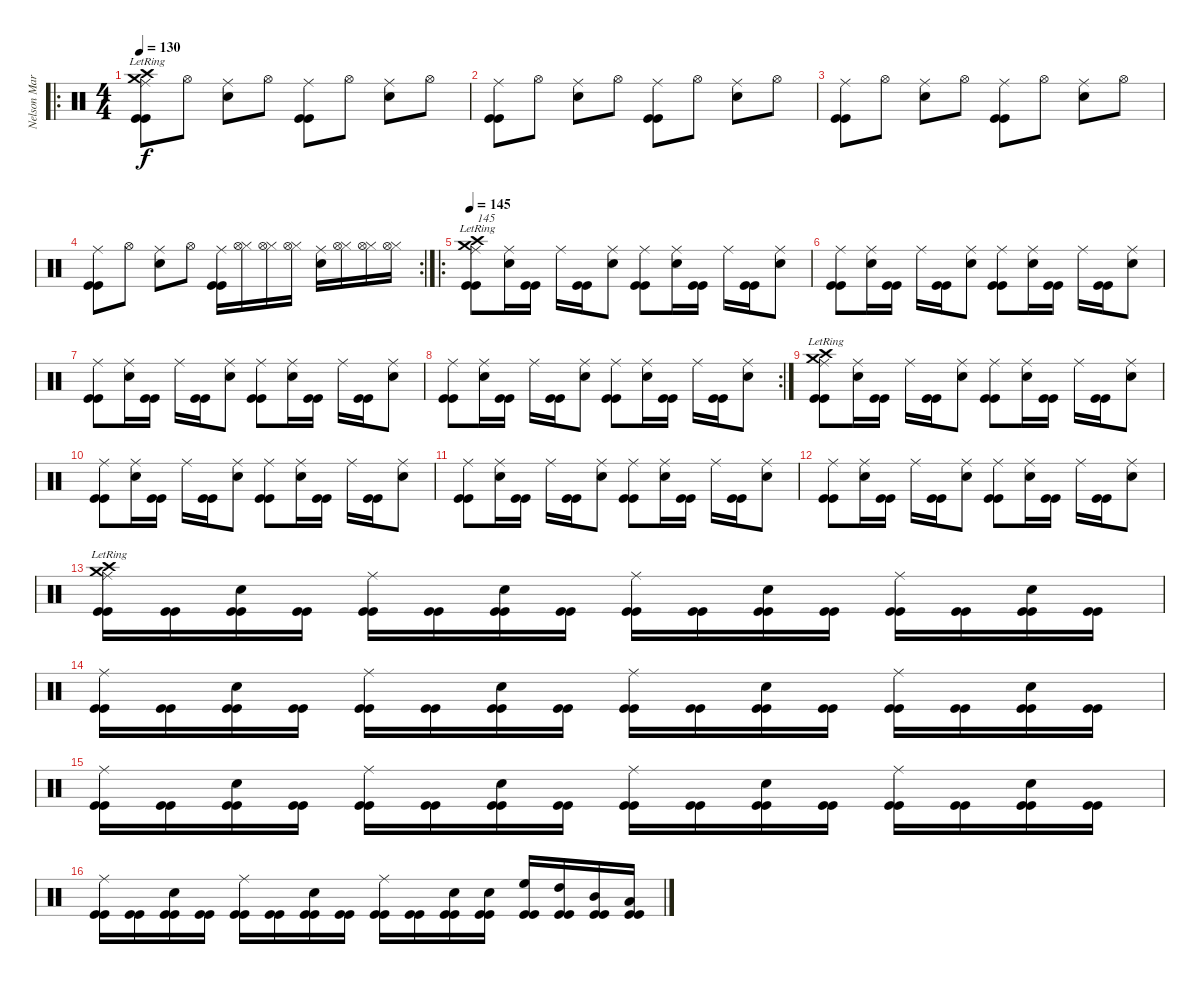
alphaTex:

\track ("Nelson Maria" "Nelson Mar") {instrument percussion}
\staff {score}
\articulation defaults
\ro
\ts (4 4)
\tempo 130
\clef neutral
\ks c
("Crash high (hit)"{lr} "Crash medium (hit)"{lr} "Ride (middle)" "Kick (hit)" "Kick (hit)").8{dy f} "Hi-Hat (open)".8 ("Snare (hit) 2" "Ride (middle)").8 "Hi-Hat (open)".8 ("Ride (middle)" "Kick (hit)" "Kick (hit)").8 "Hi-Hat (open)".8 ("Snare (hit) 2" "Ride (middle)").8 "Hi-Hat (open)".8 |
("Ride (middle)" "Kick (hit)" "Kick (hit)").8 "Hi-Hat (open)".8 ("Snare (hit) 2" "Ride (middle)").8 "Hi-Hat (open)".8 ("Ride (middle)" "Kick (hit)" "Kick (hit)").8 "Hi-Hat (open)".8 ("Snare (hit) 2" "Ride (middle)").8 "Hi-Hat (open)".8 |
("Ride (middle)" "Kick (hit)" "Kick (hit)").8 "Hi-Hat (open)".8 ("Snare (hit) 2" "Ride (middle)").8 "Hi-Hat (open)".8 ("Ride (middle)" "Kick (hit)" "Kick (hit)").8 "Hi-Hat (open)".8 ("Snare (hit) 2" "Ride (middle)").8 "Hi-Hat (open)".8 |
\rc 2
("Ride (middle)" "Kick (hit)" "Kick (hit)").8 "Hi-Hat (open)".8 ("Snare (hit) 2" "Ride (middle)").8 "Hi-Hat (open)".8 ("Ride (middle)" "Kick (hit)" "Kick (hit)").16 ("Hi-Hat (closed)" "Hi-Hat (open)").16 ("Hi-Hat (closed)" "Hi-Hat (open)").16 ("Hi-Hat (closed)" "Hi-Hat (open)").16 ("Snare (hit) 2" "Ride (middle)").16 ("Hi-Hat (closed)" "Hi-Hat (open)").16 ("Hi-Hat (closed)" "Hi-Hat (open)").16 ("Hi-Hat (closed)" "Hi-Hat (open)").16 |
\ro
\tempo 145
("Crash high (hit)"{lr} "Crash medium (hit)"{lr} "Ride (middle)" "Kick (hit)" "Kick (hit)").8{txt "145"} ("Snare (hit) 2" "Ride (middle)").16 ("Kick (hit)" "Kick (hit)").16 "Ride (middle)".16 ("Kick (hit)" "Kick (hit)").16 ("Snare (hit) 2" "Ride (middle)").8 ("Ride (middle)" "Kick (hit)" "Kick (hit)").8 ("Snare (hit) 2" "Ride (middle)").16 ("Kick (hit)" "Kick (hit)").16 "Ride (middle)".16 ("Kick (hit)" "Kick (hit)").16 ("Snare (hit) 2" "Ride (middle)").8 |
("Ride (middle)" "Kick (hit)" "Kick (hit)").8 ("Snare (hit) 2" "Ride (middle)").16 ("Kick (hit)" "Kick (hit)").16 "Ride (middle)".16 ("Kick (hit)" "Kick (hit)").16 ("Snare (hit) 2" "Ride (middle)").8 ("Ride (middle)" "Kick (hit)" "Kick (hit)").8 ("Snare (hit) 2" "Ride (middle)").16 ("Kick (hit)" "Kick (hit)").16 "Ride (middle)".16 ("Kick (hit)" "Kick (hit)").16 ("Snare (hit) 2" "Ride (middle)").8 |
("Ride (middle)" "Kick (hit)" "Kick (hit)").8 ("Snare (hit) 2" "Ride (middle)").16 ("Kick (hit)" "Kick (hit)").16 "Ride (middle)".16 ("Kick (hit)" "Kick (hit)").16 ("Snare (hit) 2" "Ride (middle)").8 ("Ride (middle)" "Kick (hit)" "Kick (hit)").8 ("Snare (hit) 2" "Ride (middle)").16 ("Kick (hit)" "Kick (hit)").16 "Ride (middle)".16 ("Kick (hit)" "Kick (hit)").16 ("Snare (hit) 2" "Ride (middle)").8 |
\rc 2
("Ride (middle)" "Kick (hit)" "Kick (hit)").8 ("Snare (hit) 2" "Ride (middle)").16 ("Kick (hit)" "Kick (hit)").16 "Ride (middle)".16 ("Kick (hit)" "Kick (hit)").16 ("Snare (hit) 2" "Ride (middle)").8 ("Ride (middle)" "Kick (hit)" "Kick (hit)").8 ("Snare (hit) 2" "Ride (middle)").16 ("Kick (hit)" "Kick (hit)").16 "Ride (middle)".16 ("Kick (hit)" "Kick (hit)").16 ("Snare (hit) 2" "Ride (middle)").8 |
("Crash high (hit)"{lr} "Crash medium (hit)"{lr} "Ride (middle)" "Kick (hit)" "Kick (hit)").8 ("Snare (hit) 2" "Ride (middle)").16 ("Kick (hit)" "Kick (hit)").16 "Ride (middle)".16 ("Kick (hit)" "Kick (hit)").16 ("Snare (hit) 2" "Ride (middle)").8 ("Ride (middle)" "Kick (hit)" "Kick (hit)").8 ("Snare (hit) 2" "Ride (middle)").16 ("Kick (hit)" "Kick (hit)").16 "Ride (middle)".16 ("Kick (hit)" "Kick (hit)").16 ("Snare (hit) 2" "Ride (middle)").8 |
("Ride (middle)" "Kick (hit)" "Kick (hit)").8 ("Snare (hit) 2" "Ride (middle)").16 ("Kick (hit)" "Kick (hit)").16 "Ride (middle)".16 ("Kick (hit)" "Kick (hit)").16 ("Snare (hit) 2" "Ride (middle)").8 ("Ride (middle)" "Kick (hit)" "Kick (hit)").8 ("Snare (hit) 2" "Ride (middle)").16 ("Kick (hit)" "Kick (hit)").16 "Ride (middle)".16 ("Kick (hit)" "Kick (hit)").16 ("Snare (hit) 2" "Ride (middle)").8 |
("Ride (middle)" "Kick (hit)" "Kick (hit)").8 ("Snare (hit) 2" "Ride (middle)").16 ("Kick (hit)" "Kick (hit)").16 "Ride (middle)".16 ("Kick (hit)" "Kick (hit)").16 ("Snare (hit) 2" "Ride (middle)").8 ("Ride (middle)" "Kick (hit)" "Kick (hit)").8 ("Snare (hit) 2" "Ride (middle)").16 ("Kick (hit)" "Kick (hit)").16 "Ride (middle)".16 ("Kick (hit)" "Kick (hit)").16 ("Snare (hit) 2" "Ride (middle)").8 |
("Ride (middle)" "Kick (hit)" "Kick (hit)").8 ("Snare (hit) 2" "Ride (middle)").16 ("Kick (hit)" "Kick (hit)").16 "Ride (middle)".16 ("Kick (hit)" "Kick (hit)").16 ("Snare (hit) 2" "Ride (middle)").8 ("Ride (middle)" "Kick (hit)" "Kick (hit)").8 ("Snare (hit) 2" "Ride (middle)").16 ("Kick (hit)" "Kick (hit)").16 "Ride (middle)".16 ("Kick (hit)" "Kick (hit)").16 ("Snare (hit) 2" "Ride (middle)").8 |
("Crash high (hit)"{lr} "Crash medium (hit)"{lr} "Ride (middle)" "Kick (hit)" "Kick (hit)").16 ("Kick (hit)" "Kick (hit)").16 ("Snare (hit) 2" "Kick (hit)" "Kick (hit)").16 ("Kick (hit)" "Kick (hit)").16 ("Ride (middle)" "Kick (hit)" "Kick (hit)").16 ("Kick (hit)" "Kick (hit)").16 ("Snare (hit) 2" "Kick (hit)" "Kick (hit)").16 ("Kick (hit)" "Kick (hit)").16 ("Ride (middle)" "Kick (hit)" "Kick (hit)").16 ("Kick (hit)" "Kick (hit)").16 ("Snare (hit) 2" "Kick (hit)" "Kick (hit)").16 ("Kick (hit)" "Kick (hit)").16 ("Ride (middle)" "Kick (hit)" "Kick (hit)").16 ("Kick (hit)" "Kick (hit)").16 ("Snare (hit) 2" "Kick (hit)" "Kick (hit)").16 ("Kick (hit)" "Kick (hit)").16 |
("Ride (middle)" "Kick (hit)" "Kick (hit)").16 ("Kick (hit)" "Kick (hit)").16 ("Snare (hit) 2" "Kick (hit)" "Kick (hit)").16 ("Kick (hit)" "Kick (hit)").16 ("Ride (middle)" "Kick (hit)" "Kick (hit)").16 ("Kick (hit)" "Kick (hit)").16 ("Snare (hit) 2" "Kick (hit)" "Kick (hit)").16 ("Kick (hit)" "Kick (hit)").16 ("Ride (middle)" "Kick (hit)" "Kick (hit)").16 ("Kick (hit)" "Kick (hit)").16 ("Snare (hit) 2" "Kick (hit)" "Kick (hit)").16 ("Kick (hit)" "Kick (hit)").16 ("Ride (middle)" "Kick (hit)" "Kick (hit)").16 ("Kick (hit)" "Kick (hit)").16 ("Snare (hit) 2" "Kick (hit)" "Kick (hit)").16 ("Kick (hit)" "Kick (hit)").16 |
("Ride (middle)" "Kick (hit)" "Kick (hit)").16 ("Kick (hit)" "Kick (hit)").16 ("Snare (hit) 2" "Kick (hit)" "Kick (hit)").16 ("Kick (hit)" "Kick (hit)").16 ("Ride (middle)" "Kick (hit)" "Kick (hit)").16 ("Kick (hit)" "Kick (hit)").16 ("Snare (hit) 2" "Kick (hit)" "Kick (hit)").16 ("Kick (hit)" "Kick (hit)").16 ("Ride (middle)" "Kick (hit)" "Kick (hit)").16 ("Kick (hit)" "Kick (hit)").16 ("Snare (hit) 2" "Kick (hit)" "Kick (hit)").16 ("Kick (hit)" "Kick (hit)").16 ("Ride (middle)" "Kick (hit)" "Kick (hit)").16 ("Kick (hit)" "Kick (hit)").16 ("Snare (hit) 2" "Kick (hit)" "Kick (hit)").16 ("Kick (hit)" "Kick (hit)").16 |
("Ride (middle)" "Kick (hit)" "Kick (hit)").16 ("Kick (hit)" "Kick (hit)").16 ("Snare (hit) 2" "Kick (hit)" "Kick (hit)").16 ("Kick (hit)" "Kick (hit)").16 ("Ride (middle)" "Kick (hit)" "Kick (hit)").16 ("Kick (hit)" "Kick (hit)").16 ("Snare (hit) 2" "Kick (hit)" "Kick (hit)").16 ("Kick (hit)" "Kick (hit)").16 ("Ride (middle)" "Kick (hit)" "Kick (hit)").16 ("Kick (hit)" "Kick (hit)").16 ("Snare (hit) 2" "Kick (hit)" "Kick (hit)").16 ("Snare (hit) 2" "Kick (hit)" "Kick (hit)").16 ("High Floor Tom (hit)" "Kick (hit)" "Kick (hit)").16 ("High Tom (hit)" "Kick (hit)" "Kick (hit)").16 ("Mid Tom (hit)" "Kick (hit)" "Kick (hit)").16 ("Low Tom (hit)" "Kick (hit)" "Kick (hit)").16
